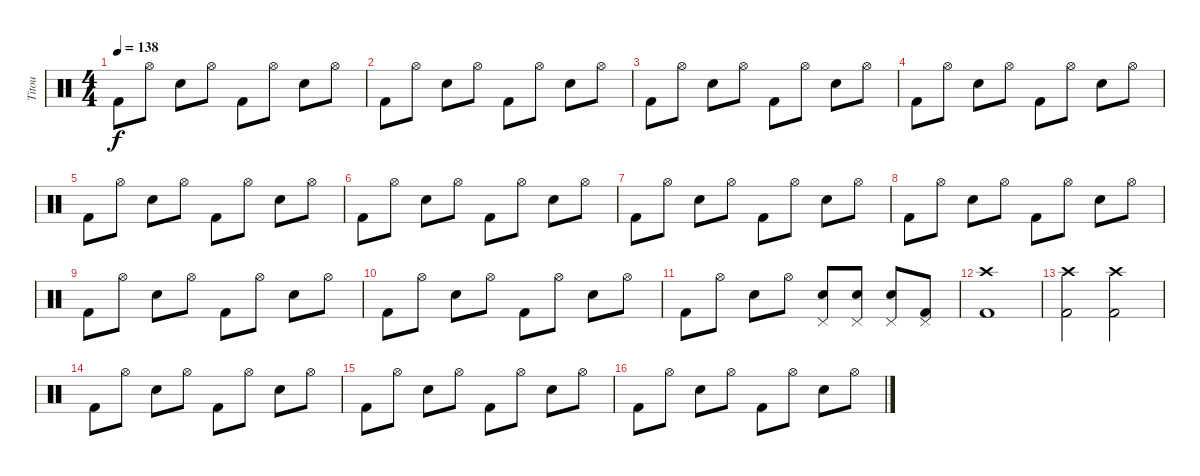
\track ("Titou" "Titou") {instrument percussion}
\staff {score}
\articulation defaults
\ts (4 4)
\tempo 138
\clef neutral
\ks c "Kick (hit) 2".8{dy f} "Hi-Hat (open)".8 "Electric Snare (hit)".8 "Hi-Hat (open)".8 "Kick (hit) 2".8 "Hi-Hat (open)".8 "Electric Snare (hit)".8 "Hi-Hat (open)".8
|
"Kick (hit) 2".8 "Hi-Hat (open)".8 "Electric Snare (hit)".8 "Hi-Hat (open)".8 "Kick (hit) 2".8 "Hi-Hat (open)".8 "Electric Snare (hit)".8 "Hi-Hat (open)".8 |
"Kick (hit) 2".8 "Hi-Hat (open)".8 "Electric Snare (hit)".8 "Hi-Hat (open)".8 "Kick (hit) 2".8 "Hi-Hat (open)".8 "Electric Snare (hit)".8 "Hi-Hat (open)".8 |
"Kick (hit) 2".8 "Hi-Hat (open)".8 "Electric Snare (hit)".8 "Hi-Hat (open)".8 "Kick (hit) 2".8 "Hi-Hat (open)".8 "Electric Snare (hit)".8 "Hi-Hat (open)".8 |
"Kick (hit) 2".8 "Hi-Hat (open)".8 "Electric Snare (hit)".8 "Hi-Hat (open)".8 "Kick (hit) 2".8 "Hi-Hat (open)".8 "Electric Snare (hit)".8 "Hi-Hat (open)".8 |
"Kick (hit) 2".8 "Hi-Hat (open)".8 "Electric Snare (hit)".8 "Hi-Hat (open)".8 "Kick (hit) 2".8 "Hi-Hat (open)".8 "Electric Snare (hit)".8 "Hi-Hat (open)".8 |
"Kick (hit) 2".8 "Hi-Hat (open)".8 "Electric Snare (hit)".8 "Hi-Hat (open)".8 "Kick (hit) 2".8 "Hi-Hat (open)".8 "Electric Snare (hit)".8 "Hi-Hat (open)".8 |
"Kick (hit) 2".8 "Hi-Hat (open)".8 "Electric Snare (hit)".8 "Hi-Hat (open)".8 "Kick (hit) 2".8 "Hi-Hat (open)".8 "Electric Snare (hit)".8 "Hi-Hat (open)".8 |
"Kick (hit) 2".8 "Hi-Hat (open)".8 "Electric Snare (hit)".8 "Hi-Hat (open)".8 "Kick (hit) 2".8 "Hi-Hat (open)".8 "Electric Snare (hit)".8 "Hi-Hat (open)".8 |
"Kick (hit) 2".8 "Hi-Hat (open)".8 "Electric Snare (hit)".8 "Hi-Hat (open)".8 "Kick (hit) 2".8 "Hi-Hat (open)".8 "Electric Snare (hit)".8 "Hi-Hat (open)".8 |
"Kick (hit) 2".8 "Hi-Hat (open)".8 "Electric Snare (hit)".8 "Hi-Hat (open)".8 ("Pedal Hi-Hat (hit)" "Electric Snare (hit)").8 ("Pedal Hi-Hat (hit)" "Electric Snare (hit)").8 ("Pedal Hi-Hat (hit)" "Electric Snare (hit)").8 ("Pedal Hi-Hat (hit)" "Kick (hit) 2").8 |
("Kick (hit) 2" "Crash high (hit)").1 |
("Crash high (hit)" "Kick (hit) 2").2 ("Crash high (hit)" "Kick (hit) 2").2 |
"Kick (hit) 2".8 "Hi-Hat (open)".8 "Electric Snare (hit)".8 "Hi-Hat (open)".8 "Kick (hit) 2".8 "Hi-Hat (open)".8 "Electric Snare (hit)".8 "Hi-Hat (open)".8 |
"Kick (hit) 2".8 "Hi-Hat (open)".8 "Electric Snare (hit)".8 "Hi-Hat (open)".8 "Kick (hit) 2".8 "Hi-Hat (open)".8 "Electric Snare (hit)".8 "Hi-Hat (open)".8 |
"Kick (hit) 2".8 "Hi-Hat (open)".8 "Electric Snare (hit)".8 "Hi-Hat (open)".8 "Kick (hit) 2".8 "Hi-Hat (open)".8 "Electric Snare (hit)".8 "Hi-Hat (open)".8
